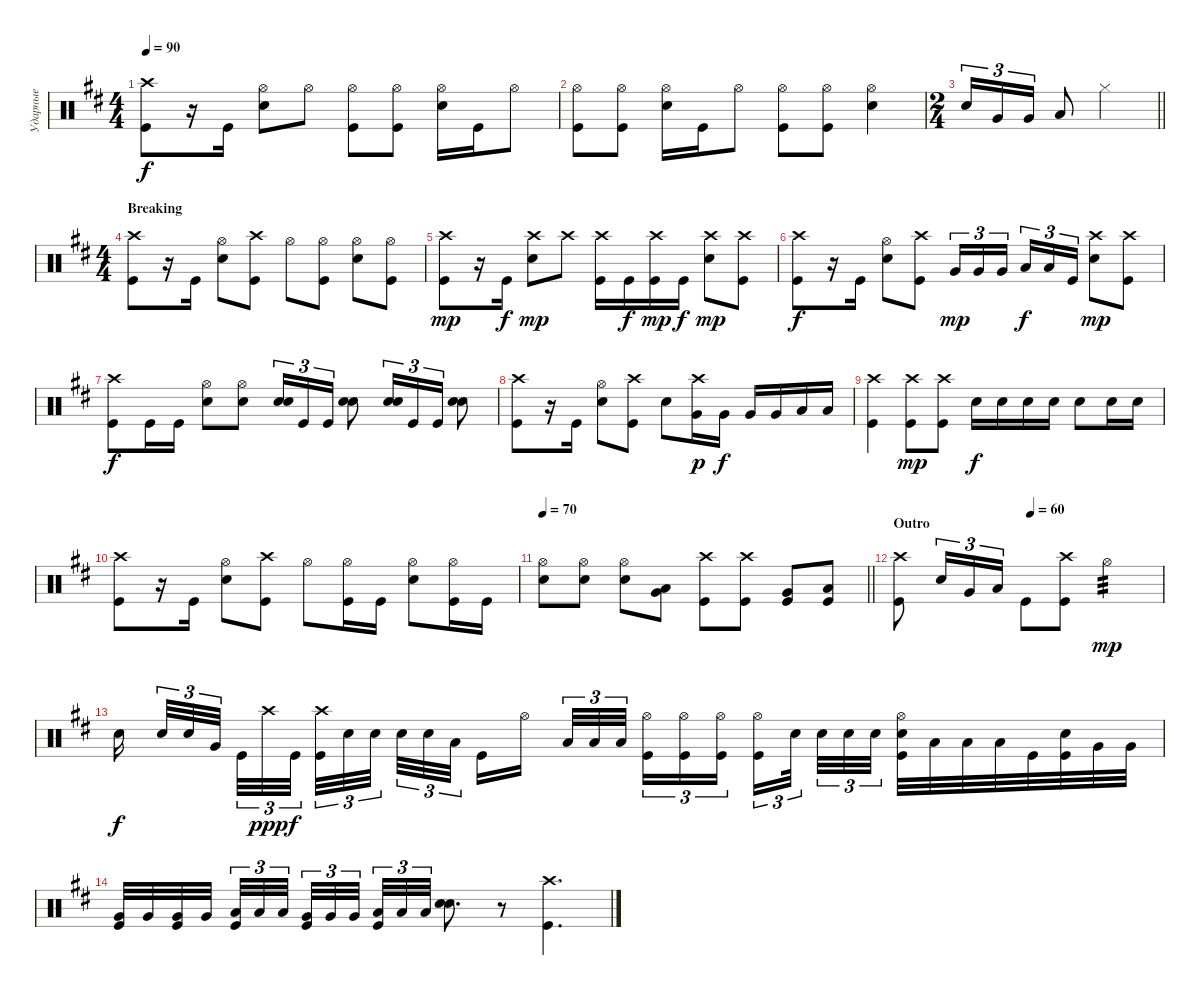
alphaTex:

\track ("Ударные" "Ударные") {instrument percussion}
\staff {score}
\articulation defaults
\ts (4 4)
\tempo 90
\clef neutral
\ks bminor
("Kick (hit)" "Crash high (hit)").8{dy f} r.16 "Kick (hit)".16 ("Snare (hit) 2" "Hi-Hat (open)").8 "Hi-Hat (open)".8 ("Kick (hit)" "Hi-Hat (open)").8 ("Kick (hit)" "Hi-Hat (open)").8 ("Snare (hit) 2" "Hi-Hat (open)").16 "Kick (hit)".16 "Hi-Hat (open)".8 |
("Kick (hit)" "Hi-Hat (open)").8 ("Kick (hit)" "Hi-Hat (open)").8 ("Snare (hit) 2" "Hi-Hat (open)").16 "Kick (hit)".16 "Hi-Hat (open)".8 ("Kick (hit)" "Hi-Hat (open)").8 ("Kick (hit)" "Hi-Hat (open)").8 ("Snare (hit) 2" "Hi-Hat (open)").4 |
\ts (2 4)
\barLineRight lightlight "Snare (hit) 2".16{tu (3 2)} "Very Low Tom (hit)".16{tu (3 2)} "Very Low Tom (hit)".16{tu (3 2)} "Low Floor Tom (hit)".8 "Hi-Hat (closed)".4
|
\ts (4 4)
\section ("" "Breaking")
("Kick (hit)" "Crash high (hit)").8 r.16 "Kick (hit)".16 ("Snare (hit) 2" "Hi-Hat (open)").8 ("Kick (hit)" "Crash high (hit)").8 "Hi-Hat (open)".8 ("Hi-Hat (open)" "Kick (hit)").8 ("Snare (hit) 2" "Hi-Hat (open)").8 ("Hi-Hat (open)" "Kick (hit)").8 |
("Kick (hit)" "Crash high (hit)").8{dy mp} r.16 "Kick (hit)".16{dy f} ("Snare (hit) 2" "Crash high (hit)").8{dy mp} "Crash high (hit)".8 ("Kick (hit)" "Crash high (hit)").16 "Kick (hit)".16{dy f} ("Kick (hit)" "Crash high (hit)").16{dy mp} "Kick (hit)".16{dy f} ("Snare (hit) 2" "Crash high (hit)").8{dy mp} ("Kick (hit)" "Crash high (hit)").8 |
("Kick (hit)" "Crash high (hit)").8{dy f} r.16 "Kick (hit)".16 ("Snare (hit) 2" "Hi-Hat (open)").8 ("Kick (hit)" "Crash high (hit)").8 "Very Low Tom (hit)".16{tu (3 2) dy mp} "Very Low Tom (hit)".16{tu (3 2)} "Very Low Tom (hit)".16{tu (3 2) beam splitsecondary} "Low Floor Tom (hit)".16{tu (3 2) dy f} "Low Floor Tom (hit)".16{tu (3 2)} "Kick (hit)".16{tu (3 2)} ("Snare (hit) 2" "Crash high (hit)").8{dy mp} ("Kick (hit)" "Crash high (hit)").8 |
("Kick (hit)" "Crash high (hit)").8{dy f} "Kick (hit)".16 "Kick (hit)".16 ("Snare (hit) 2" "Hi-Hat (open)").8 ("Snare (hit) 2" "Hi-Hat (open)").8 ("Snare (hit) 2" "Snare (hit) 2").16{tu (3 2) bd 240} "Kick (hit)".16{tu (3 2)} "Kick (hit)".16{tu (3 2)} ("Snare (hit) 2" "Snare (hit) 2").8{bd 240} ("Snare (hit) 2" "Snare (hit) 2").16{tu (3 2) bd 240} "Kick (hit)".16{tu (3 2)} "Kick (hit)".16{tu (3 2)} ("Snare (hit) 2" "Snare (hit) 2").8{bd 240} |
("Kick (hit)" "Crash high (hit)").8 r.16 "Kick (hit)".16 ("Snare (hit) 2" "Hi-Hat (open)").8 ("Kick (hit)" "Crash high (hit)").8 "Snare (hit) 2".8 ("Crash high (hit)" "Very Low Tom (hit)").16{dy p} "Very Low Tom (hit)".16{dy f} "Very Low Tom (hit)".16 "Very Low Tom (hit)".16 "Low Floor Tom (hit)".16 "Low Floor Tom (hit)".16 |
("Kick (hit)" "Crash high (hit)").4 ("Kick (hit)" "Crash high (hit)").8{dy mp} ("Kick (hit)" "Crash high (hit)").8 "Snare (hit) 2".16{dy f} "Snare (hit) 2".16 "Snare (hit) 2".16 "Snare (hit) 2".16 "Snare (hit) 2".8 "Snare (hit) 2".16 "Snare (hit) 2".16 |
("Kick (hit)" "Crash high (hit)").8 r.16 "Kick (hit)".16 ("Snare (hit) 2" "Hi-Hat (open)").8 ("Kick (hit)" "Crash high (hit)").8 "Hi-Hat (open)".8 ("Hi-Hat (open)" "Kick (hit)").16 "Kick (hit)".16 ("Snare (hit) 2" "Hi-Hat (open)").8 ("Hi-Hat (open)" "Kick (hit)").16 "Kick (hit)".16 |
\tempo 70
\barLineRight lightlight
("Snare (hit) 2" "Hi-Hat (open)").8 ("Snare (hit) 2" "Hi-Hat (open)").8 ("Snare (hit) 2" "Hi-Hat (open)").8 ("Very Low Tom (hit)" "Low Tom (hit)").8{bd 240} ("Kick (hit)" "Crash high (hit)").8 ("Kick (hit)" "Crash high (hit)").8 ("Kick (hit)" "Very Low Tom (hit)").8{bd 240} ("Kick (hit)" "Low Floor Tom (hit)").8{bd 240} |
\section ("" "Outro")
\tempo (60 0.5)
("Kick (hit)" "Crash high (hit)").8 "Snare (hit) 2".16{tu (3 2)} "Very Low Tom (hit)".16{tu (3 2)} "Low Floor Tom (hit)".16{tu (3 2)} "Kick (hit)".8 ("Kick (hit)" "Crash high (hit)").8 "Hi-Hat (open)".2{tp 3 dy mp} |
"Snare (hit) 2".16{dy f beam splitsecondary} "Snare (hit) 2".32{tu (3 2)} "Snare (hit) 2".32{tu (3 2)} "Very Low Tom (hit)".32{tu (3 2) beam splitsecondary} "Kick (hit)".32{tu (3 2)} "Crash high (hit)".32{tu (3 2) dy ppp} "Kick (hit)".32{tu (3 2) dy f beam splitsecondary} ("Kick (hit)" "Crash high (hit)").32{tu (3 2)} "Snare (hit) 2".32{tu (3 2)} "Snare (hit) 2".32{tu (3 2)} "Snare (hit) 2".32{tu (3 2)} "Snare (hit) 2".32{tu (3 2)} "Low Floor Tom (hit)".32{tu (3 2) beam splitsecondary} "Kick (hit)".16 "Hi-Hat (open)".16{beam splitsecondary} "Low Tom (hit)".32{tu (3 2)} "Low Tom (hit)".32{tu (3 2)} "Low Tom (hit)".32{tu (3 2)} ("Kick (hit)" "Hi-Hat (open)").16{tu (3 2)} ("Kick (hit)" "Hi-Hat (open)").16{tu (3 2)} ("Kick (hit)" "Hi-Hat (open)").16{tu (3 2) beam splitsecondary} ("Kick (hit)" "Hi-Hat (open)").16{tu (3 2)} "Snare (hit) 2".32{tu (3 2) beam splitsecondary} "Snare (hit) 2".32{tu (3 2)} "Snare (hit) 2".32{tu (3 2)} "Snare (hit) 2".32{tu (3 2)} ("Snare (hit) 2" "Hi-Hat (open)" "Kick (hit)").32 "Low Floor Tom (hit)".32 "Low Floor Tom (hit)".32 "Low Floor Tom (hit)".32 "Kick (hit)".32 ("Snare (hit) 2" "Kick (hit)").32 "Very Low Tom (hit)".32 "Very Low Tom (hit)".32 |
("Kick (hit)" "Very Low Tom (hit)").32 "Very Low Tom (hit)".32 ("Very Low Tom (hit)" "Kick (hit)").32 "Very Low Tom (hit)".32{beam splitsecondary} ("Kick (hit)" "Low Floor Tom (hit)").32{tu (3 2)} "Low Floor Tom (hit)".32{tu (3 2)} "Low Floor Tom (hit)".32{tu (3 2) beam splitsecondary} ("Very Low Tom (hit)" "Kick (hit)").32{tu (3 2)} "Very Low Tom (hit)".32{tu (3 2)} "Very Low Tom (hit)".32{tu (3 2)} ("Low Floor Tom (hit)" "Kick (hit)").32{tu (3 2)} "Low Floor Tom (hit)".32{tu (3 2)} "Low Floor Tom (hit)".32{tu (3 2)} ("Snare (hit) 2" "Snare (hit) 2").8{d bd 480} r.8 ("Kick (hit)" "Crash high (hit)").4{d}
